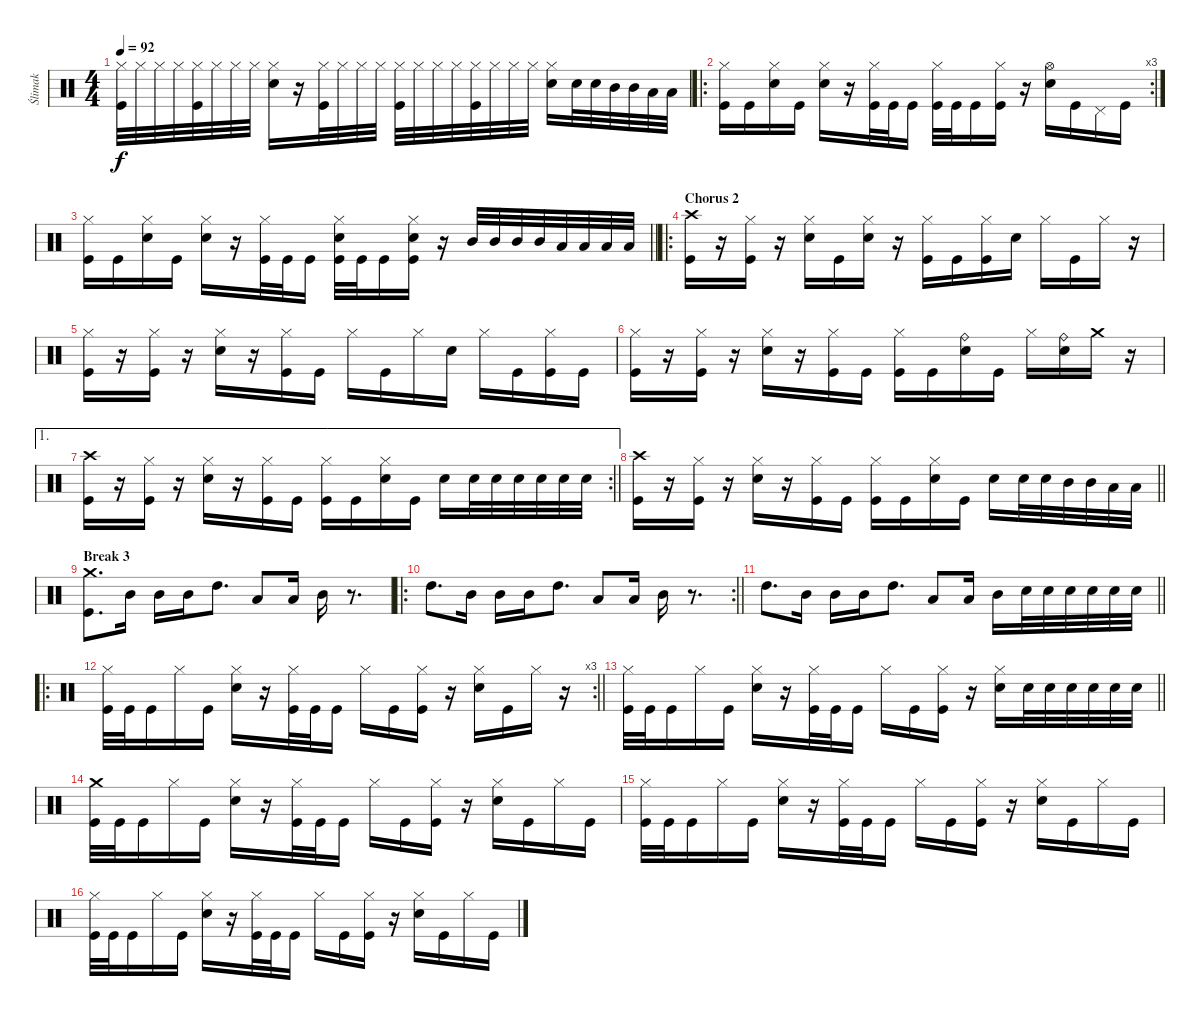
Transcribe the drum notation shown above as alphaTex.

\track ("Ślimak" "Ślimak") {instrument percussion}
\staff {score}
\articulation defaults
\ts (4 4)
\tempo 92
\clef neutral
\ks c
("Hi-Hat (closed)" "Kick (hit)").32{dy f} "Hi-Hat (closed)".32 "Hi-Hat (closed)".32 "Hi-Hat (closed)".32 ("Hi-Hat (closed)" "Kick (hit)").32 "Hi-Hat (closed)".32 "Hi-Hat (closed)".32 "Hi-Hat (closed)".32 ("Hi-Hat (closed)" "Snare (hit) 2").16 r.16 ("Hi-Hat (closed)" "Kick (hit)").32 "Hi-Hat (closed)".32 "Hi-Hat (closed)".32 "Hi-Hat (closed)".32 ("Hi-Hat (closed)" "Kick (hit)").32 "Hi-Hat (closed)".32 "Hi-Hat (closed)".32 "Hi-Hat (closed)".32 ("Hi-Hat (closed)" "Kick (hit)").32 "Hi-Hat (closed)".32 "Hi-Hat (closed)".32 "Hi-Hat (closed)".32 ("Hi-Hat (closed)" "Snare (hit) 2").16 "Snare (hit) 2".32 "Snare (hit) 2".32 "Mid Tom (hit)".32 "Mid Tom (hit)".32 "Low Tom (hit)".32 "Low Tom (hit)".32 |
\ro
\rc 3
("Hi-Hat (closed)" "Kick (hit)").16 "Kick (hit)".16 ("Hi-Hat (closed)" "Snare (hit) 2").16 "Kick (hit)".16 ("Hi-Hat (closed)" "Snare (hit) 2").16 r.16 ("Hi-Hat (closed)" "Kick (hit)").32 "Kick (hit)".32 "Kick (hit)".16 ("Hi-Hat (closed)" "Kick (hit)").32 "Kick (hit)".32 "Kick (hit)".16 ("Hi-Hat (closed)" "Kick (hit)").16 r.16 ("Hi-Hat (open)" "Snare (hit) 2").16 "Kick (hit)".16 "Pedal Hi-Hat (hit)".16 "Kick (hit)".16 |
\barLineRight lightlight
("Hi-Hat (closed)" "Kick (hit)").16 "Kick (hit)".16 ("Hi-Hat (closed)" "Snare (hit) 2").16 "Kick (hit)".16 ("Hi-Hat (closed)" "Snare (hit) 2").16 r.16 ("Hi-Hat (closed)" "Kick (hit)").32 "Kick (hit)".32 "Kick (hit)".16 ("Hi-Hat (closed)" "Snare (hit) 2" "Kick (hit)").32 "Kick (hit)".32 "Kick (hit)".16 ("Hi-Hat (closed)" "Snare (hit) 2" "Kick (hit)").16 r.16 "Mid Tom (hit)".32 "Mid Tom (hit)".32 "Mid Tom (hit)".32 "Mid Tom (hit)".32 "Low Tom (hit)".32 "Low Tom (hit)".32 "Low Tom (hit)".32 "Low Tom (hit)".32 |
\ro
\section ("" "Chorus 2")
("Crash high (hit)" "Kick (hit)").16 r.16 ("Hi-Hat (closed)" "Kick (hit)").16 r.16 ("Hi-Hat (closed)" "Snare (hit) 2").16 "Kick (hit)".16 ("Hi-Hat (closed)" "Snare (hit) 2").16 r.16 ("Hi-Hat (closed)" "Kick (hit)").16 "Kick (hit)".16 ("Hi-Hat (closed)" "Kick (hit)").16 "Snare (hit) 2".16 "Hi-Hat (closed)".16 "Kick (hit)".16 "Hi-Hat (closed)".16 r.16 |
("Hi-Hat (closed)" "Kick (hit)").16 r.16 ("Hi-Hat (closed)" "Kick (hit)").16 r.16 ("Hi-Hat (closed)" "Snare (hit) 2").16 r.16 ("Hi-Hat (closed)" "Kick (hit)").16 "Kick (hit)".16 "Hi-Hat (closed)".16 "Kick (hit)".16 "Hi-Hat (closed)".16 "Snare (hit) 2".16 "Hi-Hat (closed)".16 "Kick (hit)".16 ("Hi-Hat (closed)" "Kick (hit)").16 "Kick (hit)".16 |
("Hi-Hat (closed)" "Kick (hit)").16 r.16 ("Hi-Hat (closed)" "Kick (hit)").16 r.16 ("Hi-Hat (closed)" "Snare (hit) 2").16 r.16 ("Hi-Hat (closed)" "Kick (hit)").16 "Kick (hit)".16 ("Hi-Hat (closed)" "Kick (hit)").16 "Kick (hit)".16 ("Ride (bell)" "Snare (hit) 2").16 "Kick (hit)".16 "Hi-Hat (closed)".16 ("Ride (bell)" "Snare (hit) 2").16 "Crash medium (hit)".16 r.16 |
\ae 1
\rc 2
\barLineRight lightlight
("Crash high (hit)" "Kick (hit)").16 r.16 ("Hi-Hat (closed)" "Kick (hit)").16 r.16 ("Hi-Hat (closed)" "Snare (hit) 2").16 r.16 ("Hi-Hat (closed)" "Kick (hit)").16 "Kick (hit)".16 ("Hi-Hat (closed)" "Kick (hit)").16 "Kick (hit)".16 ("Hi-Hat (closed)" "Snare (hit) 2").16 "Kick (hit)".16 "Snare (hit) 2".16 "Snare (hit) 2".32 "Snare (hit) 2".32 "Snare (hit) 2".32 "Snare (hit) 2".32 "Snare (hit) 2".32 "Snare (hit) 2".32 |
\barLineRight lightlight
("Crash high (hit)" "Kick (hit)").16 r.16 ("Hi-Hat (closed)" "Kick (hit)").16 r.16 ("Hi-Hat (closed)" "Snare (hit) 2").16 r.16 ("Hi-Hat (closed)" "Kick (hit)").16 "Kick (hit)".16 ("Hi-Hat (closed)" "Kick (hit)").16 "Kick (hit)".16 ("Hi-Hat (closed)" "Snare (hit) 2").16 "Kick (hit)".16 "Snare (hit) 2".16 "Snare (hit) 2".32 "Snare (hit) 2".32 "Mid Tom (hit)".32 "Mid Tom (hit)".32 "Low Tom (hit)".32 "Low Tom (hit)".32 |
\section ("" "Break 3")
("Crash medium (hit)" "Kick (hit)").8{d} "Mid Tom (hit)".16 "Mid Tom (hit)".16 "Mid Tom (hit)".16 "High Tom (hit)".8{d} "Low Tom (hit)".8 "Low Tom (hit)".16 "Mid Tom (hit)".16 r.8{d} |
\ro
\rc 2
\barLineRight lightlight "High Tom (hit)".8{d} "Mid Tom (hit)".16 "Mid Tom (hit)".16 "Mid Tom (hit)".16 "High Tom (hit)".8{d} "Low Tom (hit)".8 "Low Tom (hit)".16 "Mid Tom (hit)".16
r.8{d} |
\barLineRight lightlight "High Tom (hit)".8{d} "Mid Tom (hit)".16 "Mid Tom (hit)".16 "Mid Tom (hit)".16 "High Tom (hit)".8{d} "Low Tom (hit)".8 "Low Tom (hit)".16 "Mid Tom (hit)".16 "Snare (hit) 2".32 "Snare (hit) 2".32 "Snare (hit) 2".32 "Snare (hit) 2".32 "Snare (hit) 2".32 "Snare (hit) 2".32
|
\ro
\rc 3
\barLineRight lightlight
("Hi-Hat (closed)" "Kick (hit)").32 "Kick (hit)".32 "Kick (hit)".16 "Hi-Hat (closed)".16 "Kick (hit)".16 ("Hi-Hat (closed)" "Snare (hit) 2").16 r.16 ("Hi-Hat (closed)" "Kick (hit)").32 "Kick (hit)".32 "Kick (hit)".16 "Hi-Hat (closed)".16 "Kick (hit)".16 ("Hi-Hat (closed)" "Kick (hit)").16 r.16 ("Hi-Hat (closed)" "Snare (hit) 2").16 "Kick (hit)".16 "Hi-Hat (closed)".16 r.16 |
\barLineRight lightlight
("Hi-Hat (closed)" "Kick (hit)").32 "Kick (hit)".32 "Kick (hit)".16 "Hi-Hat (closed)".16 "Kick (hit)".16 ("Hi-Hat (closed)" "Snare (hit) 2").16 r.16 ("Hi-Hat (closed)" "Kick (hit)").32 "Kick (hit)".32 "Kick (hit)".16 "Hi-Hat (closed)".16 "Kick (hit)".16 ("Hi-Hat (closed)" "Kick (hit)").16 r.16 ("Hi-Hat (closed)" "Snare (hit) 2").16 "Snare (hit) 2".32 "Snare (hit) 2".32 "Snare (hit) 2".32 "Snare (hit) 2".32 "Snare (hit) 2".32 "Snare (hit) 2".32 |
("Crash medium (hit)" "Kick (hit)").32 "Kick (hit)".32 "Kick (hit)".16 "Hi-Hat (closed)".16 "Kick (hit)".16 ("Hi-Hat (closed)" "Snare (hit) 2").16 r.16 ("Hi-Hat (closed)" "Kick (hit)").32 "Kick (hit)".32 "Kick (hit)".16 "Hi-Hat (closed)".16 "Kick (hit)".16 ("Hi-Hat (closed)" "Kick (hit)").16 r.16 ("Hi-Hat (closed)" "Snare (hit) 2").16 "Kick (hit)".16 "Hi-Hat (closed)".16 "Kick (hit)".16 |
("Hi-Hat (closed)" "Kick (hit)").32 "Kick (hit)".32 "Kick (hit)".16 "Hi-Hat (closed)".16 "Kick (hit)".16 ("Hi-Hat (closed)" "Snare (hit) 2").16 r.16 ("Hi-Hat (closed)" "Kick (hit)").32 "Kick (hit)".32 "Kick (hit)".16 "Hi-Hat (closed)".16 "Kick (hit)".16 ("Hi-Hat (closed)" "Kick (hit)").16 r.16 ("Hi-Hat (closed)" "Snare (hit) 2").16 "Kick (hit)".16 "Hi-Hat (closed)".16 "Kick (hit)".16 |
("Hi-Hat (closed)" "Kick (hit)").32 "Kick (hit)".32 "Kick (hit)".16 "Hi-Hat (closed)".16 "Kick (hit)".16 ("Hi-Hat (closed)" "Snare (hit) 2").16 r.16 ("Hi-Hat (closed)" "Kick (hit)").32 "Kick (hit)".32 "Kick (hit)".16 "Hi-Hat (closed)".16 "Kick (hit)".16 ("Hi-Hat (closed)" "Kick (hit)").16 r.16 ("Hi-Hat (closed)" "Snare (hit) 2").16 "Kick (hit)".16 "Hi-Hat (closed)".16 "Kick (hit)".16
